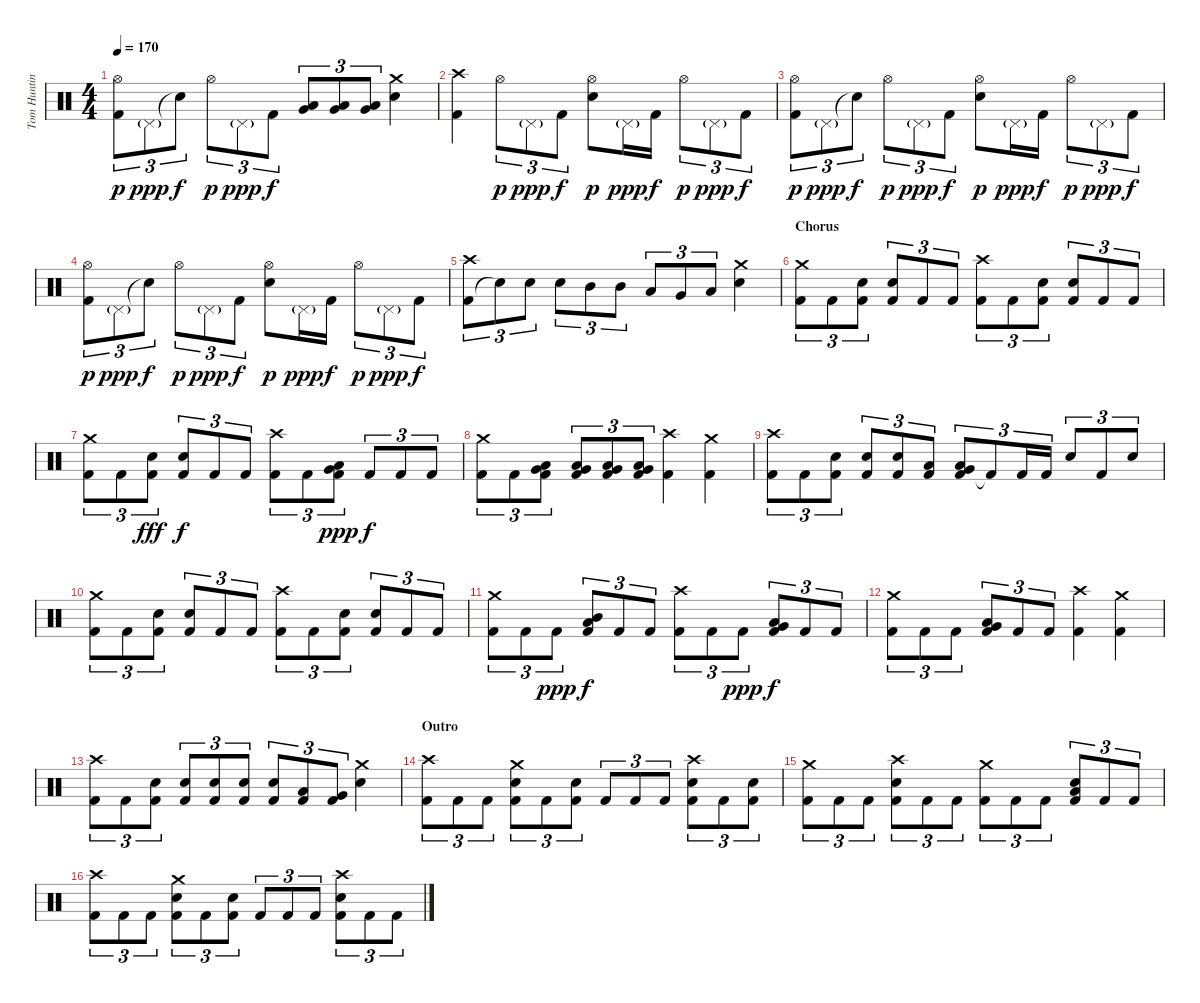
\track ("Tom Hunting" "Tom Huntin") {instrument percussion}
\staff {score}
\articulation defaults
\ts (4 4)
\tempo 170
\clef neutral
\ks c
("Kick (hit) 2" "Hi-Hat (open)").8{tu (3 2) dy p} "Pedal Hi-Hat (hit)"{g}.8{tu (3 2) dy ppp} "Snare (hit)"{t}.8{tu (3 2) dy f} "Hi-Hat (open)".8{tu (3 2) dy p} "Pedal Hi-Hat (hit)"{g}.8{tu (3 2) dy ppp} "Kick (hit) 2".8{tu (3 2) dy f} ("Very Low Tom (hit)" "Low Floor Tom (hit)").8{tu (3 2)} ("Very Low Tom (hit)" "Low Floor Tom (hit)").8{tu (3 2)} ("Very Low Tom (hit)" "Low Floor Tom (hit)").8{tu (3 2)} ("Crash medium (hit)" "Snare (hit) 2").4 |
("Kick (hit) 2" "Crash high (hit)").4 "Hi-Hat (open)".8{tu (3 2) dy p} "Pedal Hi-Hat (hit)"{g}.8{tu (3 2) dy ppp} "Kick (hit) 2".8{tu (3 2) dy f} ("Hi-Hat (open)" "Snare (hit) 2").8{dy p} "Pedal Hi-Hat (hit)"{g}.16{dy ppp} "Kick (hit) 2".16{dy f} "Hi-Hat (open)".8{tu (3 2) dy p} "Pedal Hi-Hat (hit)"{g}.8{tu (3 2) dy ppp} "Kick (hit) 2".8{tu (3 2) dy f} |
("Kick (hit) 2" "Hi-Hat (open)").8{tu (3 2) dy p} "Pedal Hi-Hat (hit)"{g}.8{tu (3 2) dy ppp} "Snare (hit)"{t}.8{tu (3 2) dy f} "Hi-Hat (open)".8{tu (3 2) dy p} "Pedal Hi-Hat (hit)"{g}.8{tu (3 2) dy ppp} "Kick (hit) 2".8{tu (3 2) dy f} ("Hi-Hat (open)" "Snare (hit) 2").8{dy p} "Pedal Hi-Hat (hit)"{g}.16{dy ppp} "Kick (hit) 2".16{dy f} "Hi-Hat (open)".8{tu (3 2) dy p} "Pedal Hi-Hat (hit)"{g}.8{tu (3 2) dy ppp} "Kick (hit) 2".8{tu (3 2) dy f} |
("Kick (hit) 2" "Hi-Hat (open)").8{tu (3 2) dy p} "Pedal Hi-Hat (hit)"{g}.8{tu (3 2) dy ppp} "Snare (hit)"{t}.8{tu (3 2) dy f} "Hi-Hat (open)".8{tu (3 2) dy p} "Pedal Hi-Hat (hit)"{g}.8{tu (3 2) dy ppp} "Kick (hit) 2".8{tu (3 2) dy f} ("Hi-Hat (open)" "Snare (hit) 2").8{dy p} "Pedal Hi-Hat (hit)"{g}.16{dy ppp} "Kick (hit) 2".16{dy f} "Hi-Hat (open)".8{tu (3 2) dy p} "Pedal Hi-Hat (hit)"{g}.8{tu (3 2) dy ppp} "Kick (hit) 2".8{tu (3 2) dy f} |
("Kick (hit) 2" "Crash high (hit)").8{tu (3 2)} "Snare (hit)"{t}.8{tu (3 2)} "Snare (hit) 2".8{tu (3 2)} "Snare (hit) 2".8{tu (3 2)} "Mid Tom (hit)".8{tu (3 2)} "Mid Tom (hit)".8{tu (3 2)} "Low Tom (hit)".8{tu (3 2)} "Very Low Tom (hit)".8{tu (3 2)} "Low Floor Tom (hit)".8{tu (3 2)} ("Crash medium (hit)" "Snare (hit) 2").4 |
\section ("" "Chorus")
("Kick (hit) 2" "Crash medium (hit)").8{tu (3 2)} "Kick (hit) 2".8{tu (3 2)} ("Kick (hit) 2" "Snare (hit) 2").8{tu (3 2)} ("Kick (hit) 2" "Snare (hit) 2").8{tu (3 2)} "Kick (hit) 2".8{tu (3 2)} "Kick (hit) 2".8{tu (3 2)} ("Kick (hit) 2" "Crash high (hit)").8{tu (3 2)} "Kick (hit) 2".8{tu (3 2)} ("Kick (hit) 2" "Snare (hit) 2").8{tu (3 2)} ("Kick (hit) 2" "Snare (hit) 2").8{tu (3 2)} "Kick (hit) 2".8{tu (3 2)} "Kick (hit) 2".8{tu (3 2)} |
("Kick (hit) 2" "Crash medium (hit)").8{tu (3 2)} "Kick (hit) 2".8{tu (3 2)} ("Kick (hit) 2" "Snare (hit) 2").8{tu (3 2) dy fff} ("Kick (hit) 2" "Snare (hit) 2").8{tu (3 2) dy f} "Kick (hit) 2".8{tu (3 2)} "Kick (hit) 2".8{tu (3 2)} ("Kick (hit) 2" "Crash high (hit)").8{tu (3 2)} "Kick (hit) 2".8{tu (3 2)} ("Kick (hit) 2" "Low Tom (hit)" "Very Low Tom (hit)").8{tu (3 2) dy ppp} "Kick (hit) 2".8{tu (3 2) dy f} "Kick (hit) 2".8{tu (3 2)} "Kick (hit) 2".8{tu (3 2)} |
("Kick (hit) 2" "Crash medium (hit)").8{tu (3 2)} "Kick (hit) 2".8{tu (3 2)} ("Kick (hit) 2" "Very Low Tom (hit)" "Low Floor Tom (hit)").8{tu (3 2)} ("Kick (hit) 2" "Very Low Tom (hit)" "Low Floor Tom (hit)").8{tu (3 2)} ("Kick (hit) 2" "Very Low Tom (hit)" "Low Floor Tom (hit)").8{tu (3 2)} ("Kick (hit) 2" "Very Low Tom (hit)" "Low Floor Tom (hit)").8{tu (3 2)} ("Kick (hit) 2" "Crash high (hit)").4 ("Kick (hit) 2" "Crash medium (hit)").4 |
("Kick (hit) 2" "Crash high (hit)").8{tu (3 2)} "Kick (hit) 2".8{tu (3 2)} ("Kick (hit) 2" "Snare (hit) 2").8{tu (3 2)} ("Kick (hit) 2" "Snare (hit) 2").8{tu (3 2)} ("Kick (hit) 2" "Snare (hit) 2").8{tu (3 2)} ("Kick (hit) 2" "Low Tom (hit)").8{tu (3 2)} ("Kick (hit) 2" "Very Low Tom (hit)" "Low Tom (hit)").8{tu (3 2)} "Kick (hit) 2"{t}.8{tu (3 2)} "Kick (hit) 2".16{tu (3 2)} "Kick (hit) 2".16{tu (3 2)} "Snare (hit) 2".8{tu (3 2)} "Kick (hit) 2".8{tu (3 2)} "Snare (hit) 2".8{tu (3 2)} |
("Kick (hit) 2" "Crash medium (hit)").8{tu (3 2)} "Kick (hit) 2".8{tu (3 2)} ("Kick (hit) 2" "Snare (hit) 2").8{tu (3 2)} ("Kick (hit) 2" "Snare (hit) 2").8{tu (3 2)} "Kick (hit) 2".8{tu (3 2)} "Kick (hit) 2".8{tu (3 2)} ("Kick (hit) 2" "Crash high (hit)").8{tu (3 2)} "Kick (hit) 2".8{tu (3 2)} ("Kick (hit) 2" "Snare (hit) 2").8{tu (3 2)} ("Kick (hit) 2" "Snare (hit) 2").8{tu (3 2)} "Kick (hit) 2".8{tu (3 2)} "Kick (hit) 2".8{tu (3 2)} |
("Kick (hit) 2" "Crash medium (hit)").8{tu (3 2)} "Kick (hit) 2".8{tu (3 2)} "Kick (hit) 2".8{tu (3 2) dy ppp} ("Kick (hit) 2" "Mid Tom (hit)" "Low Tom (hit)").8{tu (3 2) dy f} "Kick (hit) 2".8{tu (3 2)} "Kick (hit) 2".8{tu (3 2)} ("Kick (hit) 2" "Crash high (hit)").8{tu (3 2)} "Kick (hit) 2".8{tu (3 2)} "Kick (hit) 2".8{tu (3 2) dy ppp} ("Kick (hit) 2" "Low Tom (hit)" "Very Low Tom (hit)").8{tu (3 2) dy f} "Kick (hit) 2".8{tu (3 2)} "Kick (hit) 2".8{tu (3 2)} |
("Kick (hit) 2" "Crash medium (hit)").8{tu (3 2)} "Kick (hit) 2".8{tu (3 2)} "Kick (hit) 2".8{tu (3 2)} ("Kick (hit) 2" "Very Low Tom (hit)" "Low Floor Tom (hit)").8{tu (3 2)} "Kick (hit) 2".8{tu (3 2)} "Kick (hit) 2".8{tu (3 2)} ("Kick (hit) 2" "Crash high (hit)").4 ("Kick (hit) 2" "Crash medium (hit)").4 |
("Kick (hit) 2" "Crash high (hit)").8{tu (3 2)} "Kick (hit) 2".8{tu (3 2)} ("Kick (hit) 2" "Snare (hit) 2").8{tu (3 2)} ("Kick (hit) 2" "Snare (hit) 2").8{tu (3 2)} ("Kick (hit) 2" "Snare (hit) 2").8{tu (3 2)} ("Kick (hit) 2" "Snare (hit) 2").8{tu (3 2)} ("Kick (hit) 2" "Snare (hit) 2").8{tu (3 2)} ("Kick (hit) 2" "Low Tom (hit)").8{tu (3 2)} ("Kick (hit) 2" "Very Low Tom (hit)").8{tu (3 2)} ("Crash medium (hit)" "Snare (hit) 2").4 |
\section ("" "Outro")
("Kick (hit) 2" "Crash high (hit)").8{tu (3 2)} "Kick (hit) 2".8{tu (3 2)} "Kick (hit) 2".8{tu (3 2)} ("Kick (hit) 2" "Crash medium (hit)" "Snare (hit) 2").8{tu (3 2)} "Kick (hit) 2".8{tu (3 2)} ("Kick (hit) 2" "Snare (hit) 2").8{tu (3 2)} "Kick (hit) 2".8{tu (3 2)} "Kick (hit) 2".8{tu (3 2)} "Kick (hit) 2".8{tu (3 2)} ("Kick (hit) 2" "Crash high (hit)" "Snare (hit) 2").8{tu (3 2)} "Kick (hit) 2".8{tu (3 2)} ("Kick (hit) 2" "Snare (hit) 2").8{tu (3 2)} |
("Kick (hit) 2" "Crash medium (hit)").8{tu (3 2)} "Kick (hit) 2".8{tu (3 2)} "Kick (hit) 2".8{tu (3 2)} ("Kick (hit) 2" "Crash high (hit)" "Snare (hit) 2").8{tu (3 2)} "Kick (hit) 2".8{tu (3 2)} "Kick (hit) 2".8{tu (3 2)} ("Kick (hit) 2" "Crash medium (hit)").8{tu (3 2)} "Kick (hit) 2".8{tu (3 2)} "Kick (hit) 2".8{tu (3 2)} ("Kick (hit) 2" "Snare (hit) 2" "Low Tom (hit)").8{tu (3 2)} "Kick (hit) 2".8{tu (3 2)} "Kick (hit) 2".8{tu (3 2)} |
("Kick (hit) 2" "Crash high (hit)").8{tu (3 2)} "Kick (hit) 2".8{tu (3 2)} "Kick (hit) 2".8{tu (3 2)} ("Kick (hit) 2" "Crash medium (hit)" "Snare (hit) 2").8{tu (3 2)} "Kick (hit) 2".8{tu (3 2)} ("Kick (hit) 2" "Snare (hit) 2").8{tu (3 2)} "Kick (hit) 2".8{tu (3 2)} "Kick (hit) 2".8{tu (3 2)} "Kick (hit) 2".8{tu (3 2)} ("Kick (hit) 2" "Crash high (hit)" "Snare (hit) 2").8{tu (3 2)} "Kick (hit) 2".8{tu (3 2)} "Kick (hit) 2".8{tu (3 2)}
